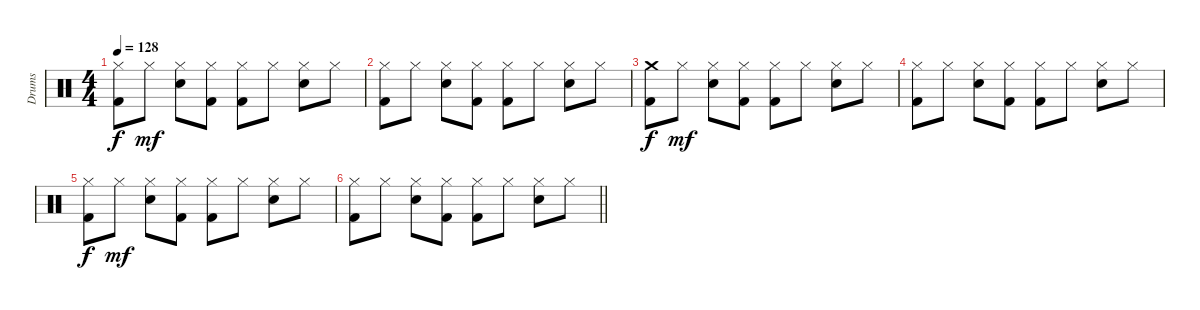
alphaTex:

\track ("Drums" "Drums") {instrument percussion}
\staff {score}
\articulation defaults
\ts (4 4)
\tempo 128
\clef neutral
\ks c
("Hi-Hat (closed)" "Kick (hit) 2").8{dy f} "Hi-Hat (closed)".8{dy mf} ("Hi-Hat (closed)" "Snare (hit) 2").8 ("Hi-Hat (closed)" "Kick (hit) 2").8 ("Hi-Hat (closed)" "Kick (hit) 2").8 "Hi-Hat (closed)".8 ("Hi-Hat (closed)" "Snare (hit) 2").8 "Hi-Hat (closed)".8 |
("Hi-Hat (closed)" "Kick (hit) 2").8 "Hi-Hat (closed)".8 ("Hi-Hat (closed)" "Snare (hit) 2").8 ("Hi-Hat (closed)" "Kick (hit) 2").8 ("Hi-Hat (closed)" "Kick (hit) 2").8 "Hi-Hat (closed)".8 ("Hi-Hat (closed)" "Snare (hit) 2").8 "Hi-Hat (closed)".8 |
("Crash medium (hit)" "Kick (hit) 2").8{dy f} "Hi-Hat (closed)".8{dy mf} ("Hi-Hat (closed)" "Snare (hit) 2").8 ("Hi-Hat (closed)" "Kick (hit) 2").8 ("Hi-Hat (closed)" "Kick (hit) 2").8 "Hi-Hat (closed)".8 ("Hi-Hat (closed)" "Snare (hit) 2").8 "Hi-Hat (closed)".8 |
("Hi-Hat (closed)" "Kick (hit) 2").8 "Hi-Hat (closed)".8 ("Hi-Hat (closed)" "Snare (hit) 2").8 ("Hi-Hat (closed)" "Kick (hit) 2").8 ("Hi-Hat (closed)" "Kick (hit) 2").8 "Hi-Hat (closed)".8 ("Hi-Hat (closed)" "Snare (hit) 2").8 "Hi-Hat (closed)".8 |
("Hi-Hat (closed)" "Kick (hit) 2").8{dy f} "Hi-Hat (closed)".8{dy mf} ("Hi-Hat (closed)" "Snare (hit) 2").8 ("Hi-Hat (closed)" "Kick (hit) 2").8 ("Hi-Hat (closed)" "Kick (hit) 2").8 "Hi-Hat (closed)".8 ("Hi-Hat (closed)" "Snare (hit) 2").8 "Hi-Hat (closed)".8 |
\barLineRight lightlight
("Hi-Hat (closed)" "Kick (hit) 2").8 "Hi-Hat (closed)".8 ("Hi-Hat (closed)" "Snare (hit) 2").8 ("Hi-Hat (closed)" "Kick (hit) 2").8 ("Hi-Hat (closed)" "Kick (hit) 2").8 "Hi-Hat (closed)".8 ("Hi-Hat (closed)" "Snare (hit) 2").8 "Hi-Hat (closed)".8
